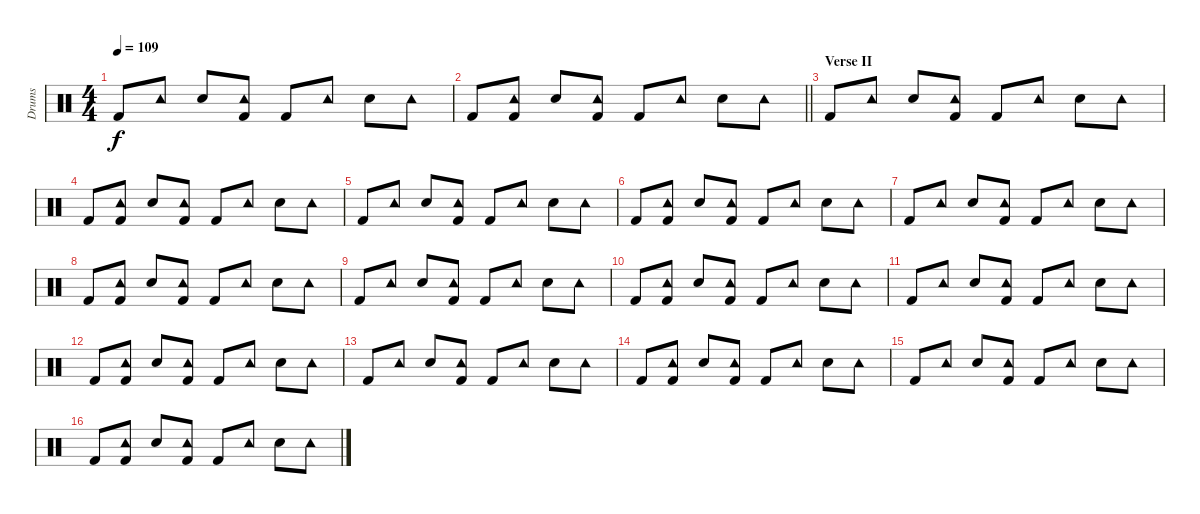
\track ("Drums" "Drums") {instrument percussion}
\staff {score}
\articulation defaults
\ts (4 4)
\tempo 109
\clef neutral
\ks c "Kick (hit) 2".8{dy f} "Tambourine (hit)".8 "Snare (hit) 2".8
("Tambourine (hit)" "Kick (hit) 2").8 "Kick (hit) 2".8 "Tambourine (hit)".8 "Snare (hit) 2".8 "Tambourine (hit)".8 |
\barLineRight lightlight "Kick (hit) 2".8
("Tambourine (hit)" "Kick (hit) 2").8 "Snare (hit) 2".8 ("Tambourine (hit)" "Kick (hit) 2").8 "Kick (hit) 2".8 "Tambourine (hit)".8 "Snare (hit) 2".8 "Tambourine (hit)".8 |
\section ("" "Verse II")
"Kick (hit) 2".8 "Tambourine (hit)".8 "Snare (hit) 2".8 ("Tambourine (hit)" "Kick (hit) 2").8 "Kick (hit) 2".8 "Tambourine (hit)".8 "Snare (hit) 2".8 "Tambourine (hit)".8 |
"Kick (hit) 2".8 ("Tambourine (hit)" "Kick (hit) 2").8 "Snare (hit) 2".8 ("Tambourine (hit)" "Kick (hit) 2").8 "Kick (hit) 2".8 "Tambourine (hit)".8 "Snare (hit) 2".8 "Tambourine (hit)".8 |
"Kick (hit) 2".8 "Tambourine (hit)".8 "Snare (hit) 2".8 ("Tambourine (hit)" "Kick (hit) 2").8 "Kick (hit) 2".8 "Tambourine (hit)".8 "Snare (hit) 2".8 "Tambourine (hit)".8 |
"Kick (hit) 2".8 ("Tambourine (hit)" "Kick (hit) 2").8 "Snare (hit) 2".8 ("Tambourine (hit)" "Kick (hit) 2").8 "Kick (hit) 2".8 "Tambourine (hit)".8 "Snare (hit) 2".8 "Tambourine (hit)".8 |
"Kick (hit) 2".8 "Tambourine (hit)".8 "Snare (hit) 2".8 ("Tambourine (hit)" "Kick (hit) 2").8 "Kick (hit) 2".8 "Tambourine (hit)".8 "Snare (hit) 2".8 "Tambourine (hit)".8 |
"Kick (hit) 2".8 ("Tambourine (hit)" "Kick (hit) 2").8 "Snare (hit) 2".8 ("Tambourine (hit)" "Kick (hit) 2").8 "Kick (hit) 2".8 "Tambourine (hit)".8 "Snare (hit) 2".8 "Tambourine (hit)".8 |
"Kick (hit) 2".8 "Tambourine (hit)".8 "Snare (hit) 2".8 ("Tambourine (hit)" "Kick (hit) 2").8 "Kick (hit) 2".8 "Tambourine (hit)".8 "Snare (hit) 2".8 "Tambourine (hit)".8 |
"Kick (hit) 2".8 ("Tambourine (hit)" "Kick (hit) 2").8 "Snare (hit) 2".8 ("Tambourine (hit)" "Kick (hit) 2").8 "Kick (hit) 2".8 "Tambourine (hit)".8 "Snare (hit) 2".8 "Tambourine (hit)".8 |
"Kick (hit) 2".8 "Tambourine (hit)".8 "Snare (hit) 2".8 ("Tambourine (hit)" "Kick (hit) 2").8 "Kick (hit) 2".8 "Tambourine (hit)".8 "Snare (hit) 2".8 "Tambourine (hit)".8 |
"Kick (hit) 2".8 ("Tambourine (hit)" "Kick (hit) 2").8 "Snare (hit) 2".8 ("Tambourine (hit)" "Kick (hit) 2").8 "Kick (hit) 2".8 "Tambourine (hit)".8 "Snare (hit) 2".8 "Tambourine (hit)".8 |
"Kick (hit) 2".8 "Tambourine (hit)".8 "Snare (hit) 2".8 ("Tambourine (hit)" "Kick (hit) 2").8 "Kick (hit) 2".8 "Tambourine (hit)".8 "Snare (hit) 2".8 "Tambourine (hit)".8 |
"Kick (hit) 2".8 ("Tambourine (hit)" "Kick (hit) 2").8 "Snare (hit) 2".8 ("Tambourine (hit)" "Kick (hit) 2").8 "Kick (hit) 2".8 "Tambourine (hit)".8 "Snare (hit) 2".8 "Tambourine (hit)".8 |
"Kick (hit) 2".8 "Tambourine (hit)".8 "Snare (hit) 2".8 ("Tambourine (hit)" "Kick (hit) 2").8 "Kick (hit) 2".8 "Tambourine (hit)".8 "Snare (hit) 2".8 "Tambourine (hit)".8 |
"Kick (hit) 2".8 ("Tambourine (hit)" "Kick (hit) 2").8 "Snare (hit) 2".8 ("Tambourine (hit)" "Kick (hit) 2").8 "Kick (hit) 2".8 "Tambourine (hit)".8 "Snare (hit) 2".8 "Tambourine (hit)".8
